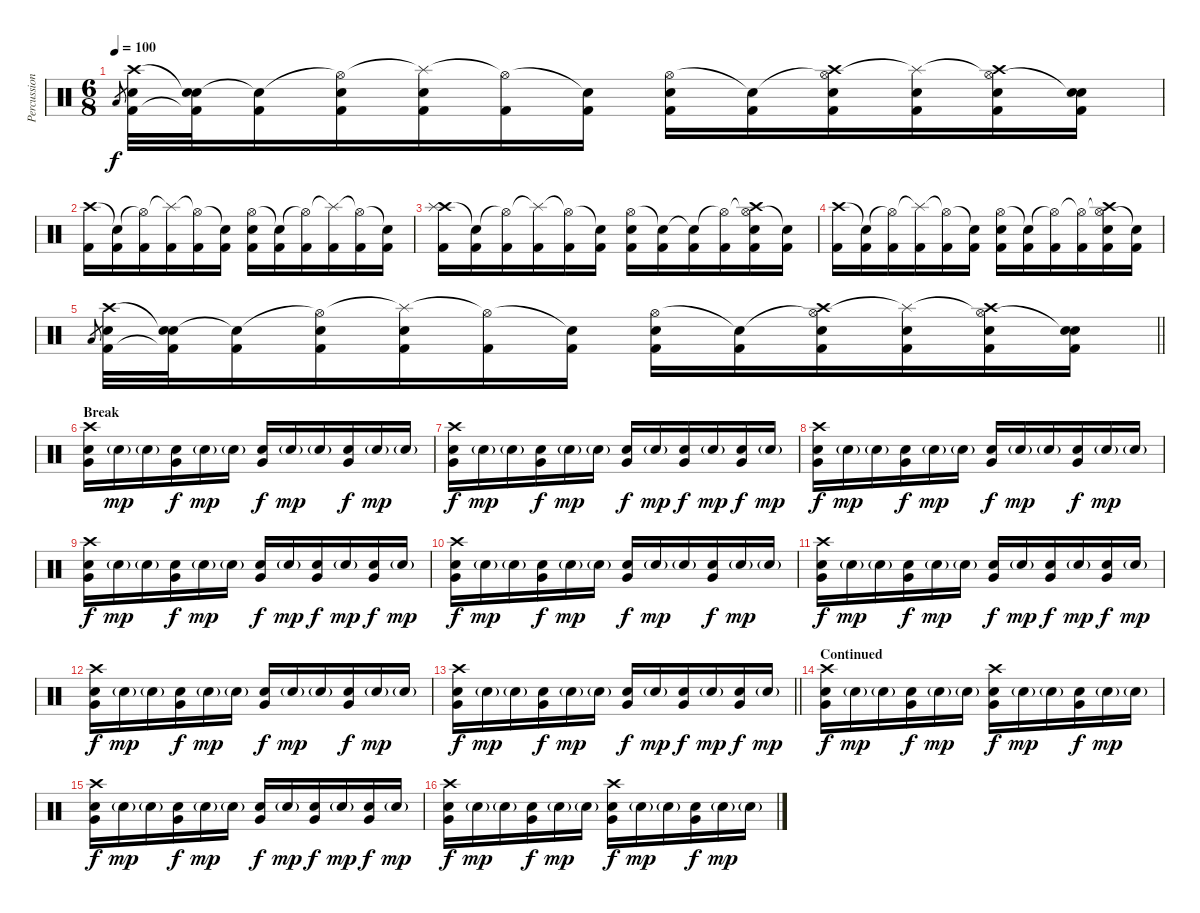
\track ("Percussion" "Percussion") {instrument percussion}
\staff {score}
\articulation defaults
\ts (6 8)
\tempo 100
\clef neutral
\ks c "Low Tom (hit)".8{gr dy f}
("Crash high (hit)" "Electric Snare (hit)" "Kick (hit) 2").32 ("Snare (hit)"{t} "Electric Snare (hit)" "Kick (hit) 2"{t}).32 ("Snare (hit)"{t} "Kick (hit) 2").16 ("Hi-Hat (open)"{t} "Electric Snare (hit)" "Kick (hit) 2").16 ("Splash (hit)"{t} "Electric Snare (hit)" "Kick (hit) 2").16 ("Hi-Hat (open)"{t} "Kick (hit) 2").16 ("Snare (hit)"{t} "Kick (hit) 2").16 ("Hi-Hat (open)" "Electric Snare (hit)" "Kick (hit) 2").16 ("Snare (hit)"{t} "Kick (hit) 2").16 ("Hi-Hat (open)"{t} "Crash high (hit)" "Electric Snare (hit)" "Kick (hit) 2").16 ("Splash (hit)"{t} "Electric Snare (hit)" "Kick (hit) 2").16 ("Hi-Hat (open)"{t} "Crash high (hit)" "Electric Snare (hit)" "Kick (hit) 2").16 ("Snare (hit)"{t} "Electric Snare (hit)" "Kick (hit) 2").16 |
("Crash high (hit)" "Kick (hit) 2").16 ("Snare (hit)"{t} "Kick (hit) 2").16 ("Hi-Hat (open)"{t} "Kick (hit) 2").16 ("Splash (hit)"{t} "Kick (hit) 2").16 ("Hi-Hat (open)"{t} "Kick (hit) 2").16 ("Snare (hit)"{t} "Kick (hit) 2").16 ("Hi-Hat (open)" "Electric Snare (hit)" "Kick (hit) 2").16 ("Snare (hit)"{t} "Kick (hit) 2").16 ("Hi-Hat (open)"{t} "Kick (hit) 2").16 ("Splash (hit)"{t} "Kick (hit) 2").16 ("Hi-Hat (open)"{t} "Kick (hit) 2").16 ("Snare (hit)"{t} "Kick (hit) 2").16 |
("Crash high (hit)" "Splash (hit)" "Kick (hit) 2").16 ("Snare (hit)"{t} "Kick (hit) 2").16 ("Hi-Hat (open)"{t} "Kick (hit) 2").16 ("Splash (hit)"{t} "Kick (hit) 2").16 ("Hi-Hat (open)"{t} "Kick (hit) 2").16 ("Snare (hit)"{t} "Kick (hit) 2").16 ("Hi-Hat (open)" "Electric Snare (hit)" "Kick (hit) 2").16 ("Snare (hit)"{t} "Kick (hit) 2").16 ("Snare (hit)"{t} "Kick (hit) 2").16 ("Hi-Hat (open)"{t} "Kick (hit) 2").16 ("Hi-Hat (open)"{t} "Crash high (hit)" "Electric Snare (hit)" "Kick (hit) 2").16 ("Snare (hit)"{t} "Kick (hit) 2").16 |
("Crash high (hit)" "Kick (hit) 2").16 ("Snare (hit)"{t} "Kick (hit) 2").16 ("Hi-Hat (open)"{t} "Kick (hit) 2").16 ("Splash (hit)"{t} "Kick (hit) 2").16 ("Hi-Hat (open)"{t} "Kick (hit) 2").16 ("Snare (hit)"{t} "Kick (hit) 2").16 ("Hi-Hat (open)" "Electric Snare (hit)" "Kick (hit) 2").16 ("Snare (hit)"{t} "Kick (hit) 2").16 ("Hi-Hat (open)"{t} "Kick (hit) 2").16 ("Hi-Hat (open)"{t} "Kick (hit) 2").16 ("Hi-Hat (open)"{t} "Crash high (hit)" "Electric Snare (hit)" "Kick (hit) 2").16 ("Snare (hit)"{t} "Kick (hit) 2").16 |
\barLineRight lightlight "Low Tom (hit)".8{gr}
("Crash high (hit)" "Electric Snare (hit)" "Kick (hit) 2").32 ("Snare (hit)"{t} "Electric Snare (hit)" "Kick (hit) 2"{t}).32 ("Snare (hit)"{t} "Kick (hit) 2").16 ("Hi-Hat (open)"{t} "Electric Snare (hit)" "Kick (hit) 2").16 ("Splash (hit)"{t} "Electric Snare (hit)" "Kick (hit) 2").16 ("Hi-Hat (open)"{t} "Kick (hit) 2").16 ("Snare (hit)"{t} "Kick (hit) 2").16 ("Hi-Hat (open)" "Electric Snare (hit)" "Kick (hit) 2").16 ("Snare (hit)"{t} "Kick (hit) 2").16 ("Hi-Hat (open)"{t} "Crash high (hit)" "Electric Snare (hit)" "Kick (hit) 2").16 ("Splash (hit)"{t} "Electric Snare (hit)" "Kick (hit) 2").16 ("Hi-Hat (open)"{t} "Crash high (hit)" "Electric Snare (hit)" "Kick (hit) 2").16 ("Snare (hit)"{t} "Electric Snare (hit)" "Kick (hit) 2").16 |
\section ("" "Break")
("Crash high (hit)" "Electric Snare (hit)" "Very Low Tom (hit)").16 "Electric Snare (hit)"{g}.16{dy mp} "Electric Snare (hit)"{g}.16 ("Electric Snare (hit)" "Very Low Tom (hit)").16{dy f} "Electric Snare (hit)"{g}.16{dy mp} "Electric Snare (hit)"{g}.16 ("Electric Snare (hit)" "Very Low Tom (hit)").16{dy f} "Electric Snare (hit)"{g}.16{dy mp} "Electric Snare (hit)"{g}.16 ("Electric Snare (hit)" "Very Low Tom (hit)").16{dy f} "Electric Snare (hit)"{g}.16{dy mp} "Electric Snare (hit)"{g}.16 |
("Crash high (hit)" "Electric Snare (hit)" "Very Low Tom (hit)").16{dy f} "Electric Snare (hit)"{g}.16{dy mp} "Electric Snare (hit)"{g}.16 ("Electric Snare (hit)" "Very Low Tom (hit)").16{dy f} "Electric Snare (hit)"{g}.16{dy mp} "Electric Snare (hit)"{g}.16 ("Electric Snare (hit)" "Very Low Tom (hit)").16{dy f} "Electric Snare (hit)"{g}.16{dy mp} ("Electric Snare (hit)" "Very Low Tom (hit)").16{dy f} "Electric Snare (hit)"{g}.16{dy mp} ("Electric Snare (hit)" "Very Low Tom (hit)").16{dy f} "Electric Snare (hit)"{g}.16{dy mp} |
("Crash high (hit)" "Electric Snare (hit)" "Very Low Tom (hit)").16{dy f} "Electric Snare (hit)"{g}.16{dy mp} "Electric Snare (hit)"{g}.16 ("Electric Snare (hit)" "Very Low Tom (hit)").16{dy f} "Electric Snare (hit)"{g}.16{dy mp} "Electric Snare (hit)"{g}.16 ("Electric Snare (hit)" "Very Low Tom (hit)").16{dy f} "Electric Snare (hit)"{g}.16{dy mp} "Electric Snare (hit)"{g}.16 ("Electric Snare (hit)" "Very Low Tom (hit)").16{dy f} "Electric Snare (hit)"{g}.16{dy mp} "Electric Snare (hit)"{g}.16 |
("Crash high (hit)" "Electric Snare (hit)" "Very Low Tom (hit)").16{dy f} "Electric Snare (hit)"{g}.16{dy mp} "Electric Snare (hit)"{g}.16 ("Electric Snare (hit)" "Very Low Tom (hit)").16{dy f} "Electric Snare (hit)"{g}.16{dy mp} "Electric Snare (hit)"{g}.16 ("Electric Snare (hit)" "Very Low Tom (hit)").16{dy f} "Electric Snare (hit)"{g}.16{dy mp} ("Electric Snare (hit)" "Very Low Tom (hit)").16{dy f} "Electric Snare (hit)"{g}.16{dy mp} ("Electric Snare (hit)" "Very Low Tom (hit)").16{dy f} "Electric Snare (hit)"{g}.16{dy mp} |
("Crash high (hit)" "Electric Snare (hit)" "Very Low Tom (hit)").16{dy f} "Electric Snare (hit)"{g}.16{dy mp} "Electric Snare (hit)"{g}.16 ("Electric Snare (hit)" "Very Low Tom (hit)").16{dy f} "Electric Snare (hit)"{g}.16{dy mp} "Electric Snare (hit)"{g}.16 ("Electric Snare (hit)" "Very Low Tom (hit)").16{dy f} "Electric Snare (hit)"{g}.16{dy mp} "Electric Snare (hit)"{g}.16 ("Electric Snare (hit)" "Very Low Tom (hit)").16{dy f} "Electric Snare (hit)"{g}.16{dy mp} "Electric Snare (hit)"{g}.16 |
("Crash high (hit)" "Electric Snare (hit)" "Very Low Tom (hit)").16{dy f} "Electric Snare (hit)"{g}.16{dy mp} "Electric Snare (hit)"{g}.16 ("Electric Snare (hit)" "Very Low Tom (hit)").16{dy f} "Electric Snare (hit)"{g}.16{dy mp} "Electric Snare (hit)"{g}.16 ("Electric Snare (hit)" "Very Low Tom (hit)").16{dy f} "Electric Snare (hit)"{g}.16{dy mp} ("Electric Snare (hit)" "Very Low Tom (hit)").16{dy f} "Electric Snare (hit)"{g}.16{dy mp} ("Electric Snare (hit)" "Very Low Tom (hit)").16{dy f} "Electric Snare (hit)"{g}.16{dy mp} |
("Crash high (hit)" "Electric Snare (hit)" "Very Low Tom (hit)").16{dy f} "Electric Snare (hit)"{g}.16{dy mp} "Electric Snare (hit)"{g}.16 ("Electric Snare (hit)" "Very Low Tom (hit)").16{dy f} "Electric Snare (hit)"{g}.16{dy mp} "Electric Snare (hit)"{g}.16 ("Electric Snare (hit)" "Very Low Tom (hit)").16{dy f} "Electric Snare (hit)"{g}.16{dy mp} "Electric Snare (hit)"{g}.16 ("Electric Snare (hit)" "Very Low Tom (hit)").16{dy f} "Electric Snare (hit)"{g}.16{dy mp} "Electric Snare (hit)"{g}.16 |
\barLineRight lightlight
("Crash high (hit)" "Electric Snare (hit)" "Very Low Tom (hit)").16{dy f} "Electric Snare (hit)"{g}.16{dy mp} "Electric Snare (hit)"{g}.16 ("Electric Snare (hit)" "Very Low Tom (hit)").16{dy f} "Electric Snare (hit)"{g}.16{dy mp} "Electric Snare (hit)"{g}.16 ("Electric Snare (hit)" "Very Low Tom (hit)").16{dy f} "Electric Snare (hit)"{g}.16{dy mp} ("Electric Snare (hit)" "Very Low Tom (hit)").16{dy f} "Electric Snare (hit)"{g}.16{dy mp} ("Electric Snare (hit)" "Very Low Tom (hit)").16{dy f} "Electric Snare (hit)"{g}.16{dy mp} |
\section ("" "Continued")
("Crash high (hit)" "Electric Snare (hit)" "Very Low Tom (hit)").16{dy f} "Electric Snare (hit)"{g}.16{dy mp} "Electric Snare (hit)"{g}.16 ("Electric Snare (hit)" "Very Low Tom (hit)").16{dy f} "Electric Snare (hit)"{g}.16{dy mp} "Electric Snare (hit)"{g}.16 ("Crash high (hit)" "Electric Snare (hit)" "Very Low Tom (hit)").16{dy f} "Electric Snare (hit)"{g}.16{dy mp} "Electric Snare (hit)"{g}.16 ("Electric Snare (hit)" "Very Low Tom (hit)").16{dy f} "Electric Snare (hit)"{g}.16{dy mp} "Electric Snare (hit)"{g}.16 |
("Crash high (hit)" "Electric Snare (hit)" "Very Low Tom (hit)").16{dy f} "Electric Snare (hit)"{g}.16{dy mp} "Electric Snare (hit)"{g}.16 ("Electric Snare (hit)" "Very Low Tom (hit)").16{dy f} "Electric Snare (hit)"{g}.16{dy mp} "Electric Snare (hit)"{g}.16 ("Electric Snare (hit)" "Very Low Tom (hit)").16{dy f} "Electric Snare (hit)"{g}.16{dy mp} ("Electric Snare (hit)" "Very Low Tom (hit)").16{dy f} "Electric Snare (hit)"{g}.16{dy mp} ("Electric Snare (hit)" "Very Low Tom (hit)").16{dy f} "Electric Snare (hit)"{g}.16{dy mp} |
("Crash high (hit)" "Electric Snare (hit)" "Very Low Tom (hit)").16{dy f} "Electric Snare (hit)"{g}.16{dy mp} "Electric Snare (hit)"{g}.16 ("Electric Snare (hit)" "Very Low Tom (hit)").16{dy f} "Electric Snare (hit)"{g}.16{dy mp} "Electric Snare (hit)"{g}.16 ("Crash high (hit)" "Electric Snare (hit)" "Very Low Tom (hit)").16{dy f} "Electric Snare (hit)"{g}.16{dy mp} "Electric Snare (hit)"{g}.16 ("Electric Snare (hit)" "Very Low Tom (hit)").16{dy f} "Electric Snare (hit)"{g}.16{dy mp} "Electric Snare (hit)"{g}.16
